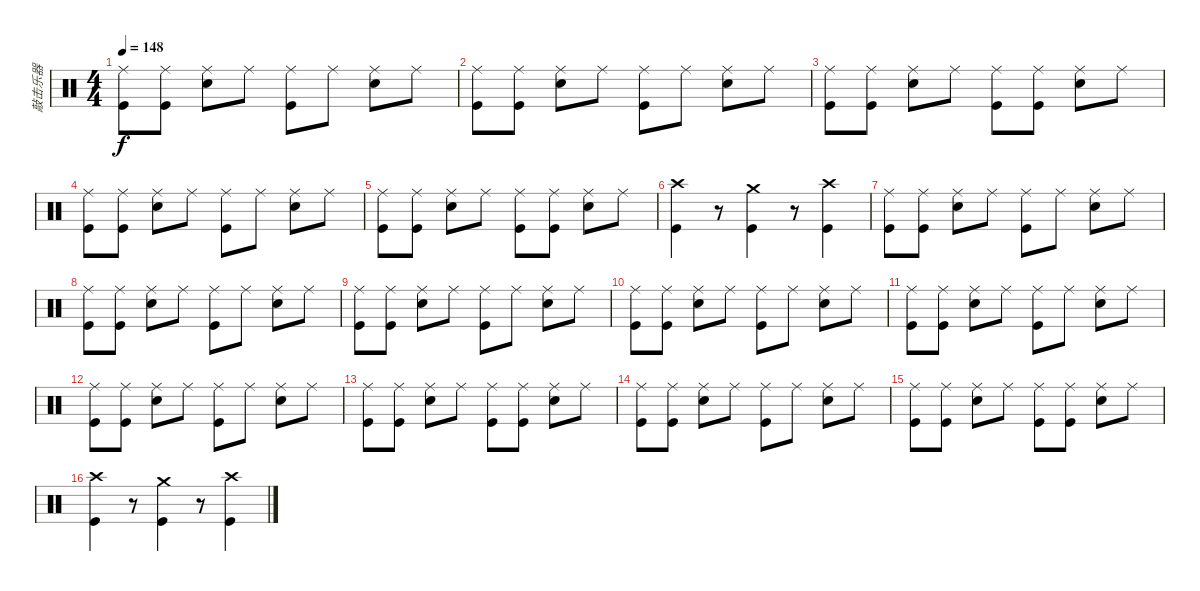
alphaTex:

\track ("敲击乐器" "敲击乐器") {instrument percussion}
\staff {score}
\articulation defaults
\ts (4 4)
\tempo 148
\clef neutral
\ks c
("Ride (middle)" "Kick (hit)").8{dy f} ("Ride (middle)" "Kick (hit)").8 ("Ride (middle)" "Snare (hit) 2").8 "Ride (middle)".8 ("Ride (middle)" "Kick (hit)").8 "Ride (middle)".8 ("Ride (middle)" "Snare (hit) 2").8 "Ride (middle)".8 |
("Ride (middle)" "Kick (hit)").8 ("Ride (middle)" "Kick (hit)").8 ("Ride (middle)" "Snare (hit) 2").8 "Ride (middle)".8 ("Ride (middle)" "Kick (hit)").8 "Ride (middle)".8 ("Ride (middle)" "Snare (hit) 2").8 "Ride (middle)".8 |
("Ride (middle)" "Kick (hit)").8 ("Ride (middle)" "Kick (hit)").8 ("Ride (middle)" "Snare (hit) 2").8 "Ride (middle)".8 ("Ride (middle)" "Kick (hit)").8 ("Ride (middle)" "Kick (hit)").8 ("Ride (middle)" "Snare (hit) 2").8 "Ride (middle)".8 |
("Ride (middle)" "Kick (hit)").8 ("Ride (middle)" "Kick (hit)").8 ("Ride (middle)" "Snare (hit) 2").8 "Ride (middle)".8 ("Ride (middle)" "Kick (hit)").8 "Ride (middle)".8 ("Ride (middle)" "Snare (hit) 2").8 "Ride (middle)".8 |
("Ride (middle)" "Kick (hit)").8 ("Ride (middle)" "Kick (hit)").8 ("Ride (middle)" "Snare (hit) 2").8 "Ride (middle)".8 ("Ride (middle)" "Kick (hit)").8 ("Ride (middle)" "Kick (hit)").8 ("Ride (middle)" "Snare (hit) 2").8 "Ride (middle)".8 |
("Crash high (hit)" "Kick (hit)").4 r.8 ("Crash medium (hit)" "Kick (hit)").4 r.8 ("Crash high (hit)" "Kick (hit)").4 |
("Ride (middle)" "Kick (hit)").8 ("Ride (middle)" "Kick (hit)").8 ("Ride (middle)" "Snare (hit) 2").8 "Ride (middle)".8 ("Ride (middle)" "Kick (hit)").8 "Ride (middle)".8 ("Ride (middle)" "Snare (hit) 2").8 "Ride (middle)".8 |
("Ride (middle)" "Kick (hit)").8 ("Ride (middle)" "Kick (hit)").8 ("Ride (middle)" "Snare (hit) 2").8 "Ride (middle)".8 ("Ride (middle)" "Kick (hit)").8 "Ride (middle)".8 ("Ride (middle)" "Snare (hit) 2").8 "Ride (middle)".8 |
("Ride (middle)" "Kick (hit)").8 ("Ride (middle)" "Kick (hit)").8 ("Ride (middle)" "Snare (hit) 2").8 "Ride (middle)".8 ("Ride (middle)" "Kick (hit)").8 "Ride (middle)".8 ("Ride (middle)" "Snare (hit) 2").8 "Ride (middle)".8 |
("Ride (middle)" "Kick (hit)").8 ("Ride (middle)" "Kick (hit)").8 ("Ride (middle)" "Snare (hit) 2").8 "Ride (middle)".8 ("Ride (middle)" "Kick (hit)").8 "Ride (middle)".8 ("Ride (middle)" "Snare (hit) 2").8 "Ride (middle)".8 |
("Ride (middle)" "Kick (hit)").8 ("Ride (middle)" "Kick (hit)").8 ("Ride (middle)" "Snare (hit) 2").8 "Ride (middle)".8 ("Ride (middle)" "Kick (hit)").8 "Ride (middle)".8 ("Ride (middle)" "Snare (hit) 2").8 "Ride (middle)".8 |
("Ride (middle)" "Kick (hit)").8 ("Ride (middle)" "Kick (hit)").8 ("Ride (middle)" "Snare (hit) 2").8 "Ride (middle)".8 ("Ride (middle)" "Kick (hit)").8 "Ride (middle)".8 ("Ride (middle)" "Snare (hit) 2").8 "Ride (middle)".8 |
("Ride (middle)" "Kick (hit)").8 ("Ride (middle)" "Kick (hit)").8 ("Ride (middle)" "Snare (hit) 2").8 "Ride (middle)".8 ("Ride (middle)" "Kick (hit)").8 ("Ride (middle)" "Kick (hit)").8 ("Ride (middle)" "Snare (hit) 2").8 "Ride (middle)".8 |
("Ride (middle)" "Kick (hit)").8 ("Ride (middle)" "Kick (hit)").8 ("Ride (middle)" "Snare (hit) 2").8 "Ride (middle)".8 ("Ride (middle)" "Kick (hit)").8 "Ride (middle)".8 ("Ride (middle)" "Snare (hit) 2").8 "Ride (middle)".8 |
("Ride (middle)" "Kick (hit)").8 ("Ride (middle)" "Kick (hit)").8 ("Ride (middle)" "Snare (hit) 2").8 "Ride (middle)".8 ("Ride (middle)" "Kick (hit)").8 ("Ride (middle)" "Kick (hit)").8 ("Ride (middle)" "Snare (hit) 2").8 "Ride (middle)".8 |
("Crash high (hit)" "Kick (hit)").4 r.8 ("Crash medium (hit)" "Kick (hit)").4 r.8 ("Crash high (hit)" "Kick (hit)").4
